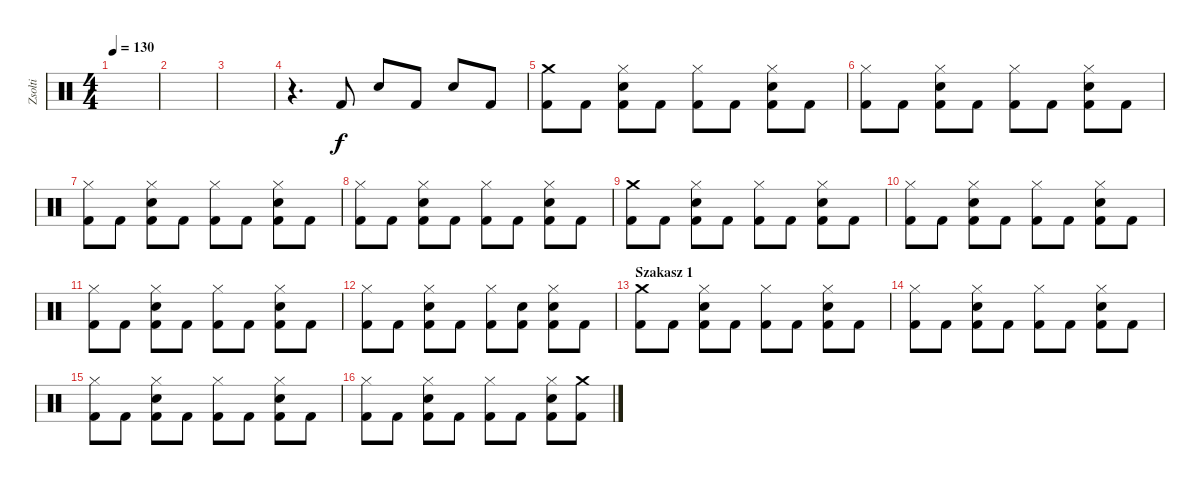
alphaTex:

\track ("Zsolti" "Zsolti") {instrument percussion}
\staff {score}
\articulation defaults
\ts (4 4)
\tempo 130
\clef neutral
\ks c
|
|
|
r.4{d} "Kick (hit) 2".8 "Snare (hit) 2".8 "Kick (hit) 2".8 "Snare (hit) 2".8 "Kick (hit) 2".8 |
("Crash medium (hit)" "Kick (hit) 2").8 "Kick (hit) 2".8 ("Hi-Hat (closed)" "Snare (hit) 2" "Kick (hit) 2").8 "Kick (hit) 2".8 ("Hi-Hat (closed)" "Kick (hit) 2").8 "Kick (hit) 2".8 ("Hi-Hat (closed)" "Snare (hit) 2" "Kick (hit) 2").8 "Kick (hit) 2".8 |
("Hi-Hat (closed)" "Kick (hit) 2").8 "Kick (hit) 2".8 ("Hi-Hat (closed)" "Snare (hit) 2" "Kick (hit) 2").8 "Kick (hit) 2".8 ("Hi-Hat (closed)" "Kick (hit) 2").8 "Kick (hit) 2".8 ("Hi-Hat (closed)" "Snare (hit) 2" "Kick (hit) 2").8 "Kick (hit) 2".8 |
("Hi-Hat (closed)" "Kick (hit) 2").8 "Kick (hit) 2".8 ("Hi-Hat (closed)" "Snare (hit) 2" "Kick (hit) 2").8 "Kick (hit) 2".8 ("Hi-Hat (closed)" "Kick (hit) 2").8 "Kick (hit) 2".8 ("Hi-Hat (closed)" "Snare (hit) 2" "Kick (hit) 2").8 "Kick (hit) 2".8 |
("Hi-Hat (closed)" "Kick (hit) 2").8 "Kick (hit) 2".8 ("Hi-Hat (closed)" "Snare (hit) 2" "Kick (hit) 2").8 "Kick (hit) 2".8 ("Hi-Hat (closed)" "Kick (hit) 2").8 "Kick (hit) 2".8 ("Hi-Hat (closed)" "Snare (hit) 2" "Kick (hit) 2").8 "Kick (hit) 2".8 |
("Crash medium (hit)" "Kick (hit) 2").8 "Kick (hit) 2".8 ("Hi-Hat (closed)" "Snare (hit) 2" "Kick (hit) 2").8 "Kick (hit) 2".8 ("Hi-Hat (closed)" "Kick (hit) 2").8 "Kick (hit) 2".8 ("Hi-Hat (closed)" "Snare (hit) 2" "Kick (hit) 2").8 "Kick (hit) 2".8 |
("Hi-Hat (closed)" "Kick (hit) 2").8 "Kick (hit) 2".8 ("Hi-Hat (closed)" "Snare (hit) 2" "Kick (hit) 2").8 "Kick (hit) 2".8 ("Hi-Hat (closed)" "Kick (hit) 2").8 "Kick (hit) 2".8 ("Hi-Hat (closed)" "Snare (hit) 2" "Kick (hit) 2").8 "Kick (hit) 2".8 |
("Hi-Hat (closed)" "Kick (hit) 2").8 "Kick (hit) 2".8 ("Hi-Hat (closed)" "Snare (hit) 2" "Kick (hit) 2").8 "Kick (hit) 2".8 ("Hi-Hat (closed)" "Kick (hit) 2").8 "Kick (hit) 2".8 ("Hi-Hat (closed)" "Snare (hit) 2" "Kick (hit) 2").8 "Kick (hit) 2".8 |
("Hi-Hat (closed)" "Kick (hit) 2").8 "Kick (hit) 2".8 ("Hi-Hat (closed)" "Snare (hit) 2" "Kick (hit) 2").8 "Kick (hit) 2".8 ("Hi-Hat (closed)" "Kick (hit) 2").8 ("Snare (hit) 2" "Kick (hit) 2").8 ("Hi-Hat (closed)" "Snare (hit) 2" "Kick (hit) 2").8 "Kick (hit) 2".8 |
\section ("" "Szakasz 1")
("Crash medium (hit)" "Kick (hit) 2").8 "Kick (hit) 2".8 ("Hi-Hat (closed)" "Snare (hit) 2" "Kick (hit) 2").8 "Kick (hit) 2".8 ("Hi-Hat (closed)" "Kick (hit) 2").8 "Kick (hit) 2".8 ("Hi-Hat (closed)" "Snare (hit) 2" "Kick (hit) 2").8 "Kick (hit) 2".8 |
("Hi-Hat (closed)" "Kick (hit) 2").8 "Kick (hit) 2".8 ("Hi-Hat (closed)" "Snare (hit) 2" "Kick (hit) 2").8 "Kick (hit) 2".8 ("Hi-Hat (closed)" "Kick (hit) 2").8 "Kick (hit) 2".8 ("Hi-Hat (closed)" "Snare (hit) 2" "Kick (hit) 2").8 "Kick (hit) 2".8 |
("Hi-Hat (closed)" "Kick (hit) 2").8 "Kick (hit) 2".8 ("Hi-Hat (closed)" "Snare (hit) 2" "Kick (hit) 2").8 "Kick (hit) 2".8 ("Hi-Hat (closed)" "Kick (hit) 2").8 "Kick (hit) 2".8 ("Hi-Hat (closed)" "Snare (hit) 2" "Kick (hit) 2").8 "Kick (hit) 2".8 |
("Hi-Hat (closed)" "Kick (hit) 2").8 "Kick (hit) 2".8 ("Hi-Hat (closed)" "Snare (hit) 2" "Kick (hit) 2").8 "Kick (hit) 2".8 ("Hi-Hat (closed)" "Kick (hit) 2").8 "Kick (hit) 2".8 ("Hi-Hat (closed)" "Snare (hit) 2" "Kick (hit) 2").8 ("Crash medium (hit)" "Kick (hit) 2").8
